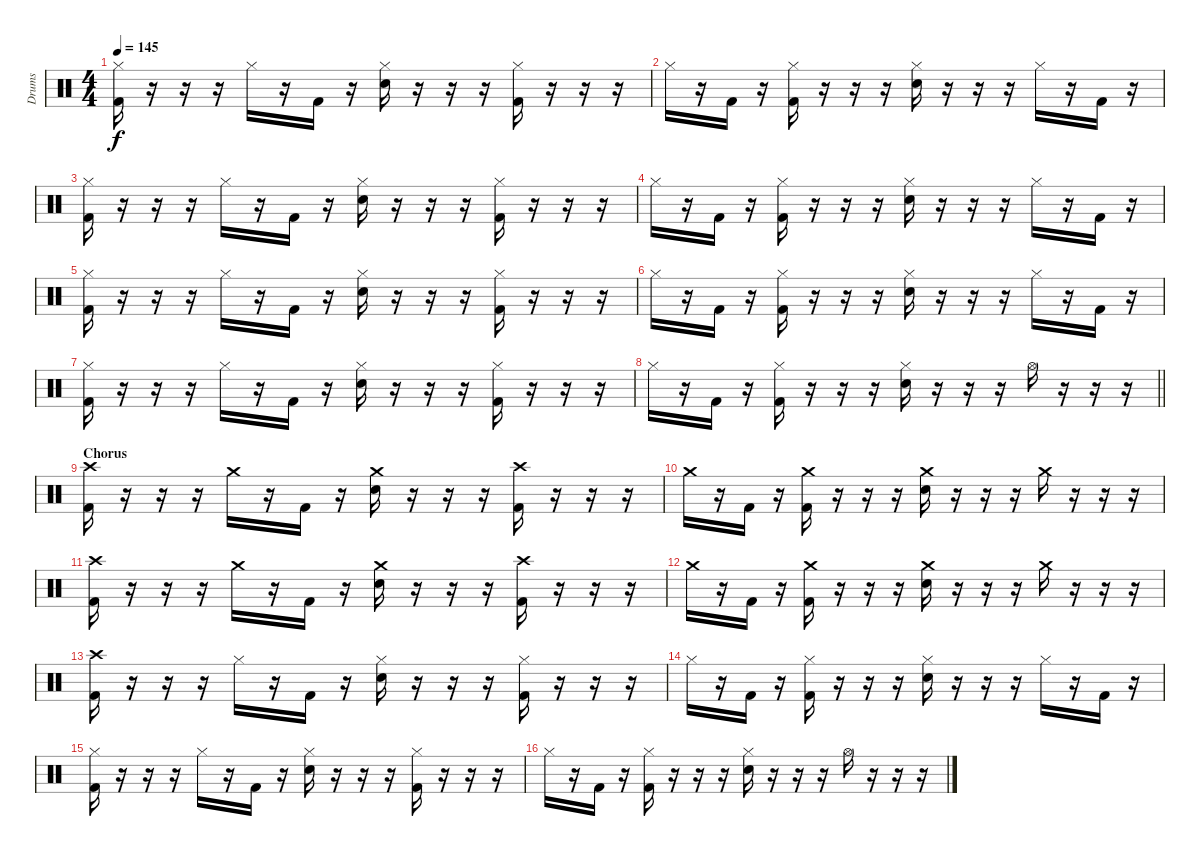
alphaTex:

\track ("Drums" "Drums") {instrument percussion}
\staff {score}
\articulation defaults
\ts (4 4)
\tempo 145
\clef neutral
\ks c
("Hi-Hat (closed)" "Kick (hit) 2").16{dy f} r.16 r.16 r.16 "Hi-Hat (closed)".16 r.16 "Kick (hit) 2".16 r.16 ("Hi-Hat (closed)" "Electric Snare (hit)").16 r.16 r.16 r.16 ("Hi-Hat (closed)" "Kick (hit) 2").16 r.16 r.16 r.16 |
"Hi-Hat (closed)".16 r.16 "Kick (hit) 2".16 r.16 ("Hi-Hat (closed)" "Kick (hit) 2").16 r.16 r.16 r.16 ("Hi-Hat (closed)" "Electric Snare (hit)").16 r.16 r.16 r.16 "Hi-Hat (closed)".16 r.16 "Kick (hit) 2".16 r.16 |
("Hi-Hat (closed)" "Kick (hit) 2").16 r.16 r.16 r.16 "Hi-Hat (closed)".16 r.16 "Kick (hit) 2".16 r.16 ("Hi-Hat (closed)" "Electric Snare (hit)").16 r.16 r.16 r.16 ("Hi-Hat (closed)" "Kick (hit) 2").16 r.16 r.16 r.16 |
"Hi-Hat (closed)".16 r.16 "Kick (hit) 2".16 r.16 ("Hi-Hat (closed)" "Kick (hit) 2").16 r.16 r.16 r.16 ("Hi-Hat (closed)" "Electric Snare (hit)").16 r.16 r.16 r.16 "Hi-Hat (closed)".16 r.16 "Kick (hit) 2".16 r.16 |
("Hi-Hat (closed)" "Kick (hit) 2").16 r.16 r.16 r.16 "Hi-Hat (closed)".16 r.16 "Kick (hit) 2".16 r.16 ("Hi-Hat (closed)" "Electric Snare (hit)").16 r.16 r.16 r.16 ("Hi-Hat (closed)" "Kick (hit) 2").16 r.16 r.16 r.16 |
"Hi-Hat (closed)".16 r.16 "Kick (hit) 2".16 r.16 ("Hi-Hat (closed)" "Kick (hit) 2").16 r.16 r.16 r.16 ("Hi-Hat (closed)" "Electric Snare (hit)").16 r.16 r.16 r.16 "Hi-Hat (closed)".16 r.16 "Kick (hit) 2".16 r.16 |
("Hi-Hat (closed)" "Kick (hit) 2").16 r.16 r.16 r.16 "Hi-Hat (closed)".16 r.16 "Kick (hit) 2".16 r.16 ("Hi-Hat (closed)" "Electric Snare (hit)").16 r.16 r.16 r.16 ("Hi-Hat (closed)" "Kick (hit) 2").16 r.16 r.16 r.16 |
\barLineRight lightlight "Hi-Hat (closed)".16
r.16 "Kick (hit) 2".16 r.16 ("Hi-Hat (closed)" "Kick (hit) 2").16 r.16 r.16 r.16 ("Hi-Hat (closed)" "Electric Snare (hit)").16 r.16 r.16 r.16 "Hi-Hat (open)".16 r.16 r.16 r.16 |
\section ("" "Chorus")
("Crash high (hit)" "Kick (hit) 2").16 r.16 r.16 r.16 "Crash medium (hit)".16 r.16 "Kick (hit) 2".16 r.16 ("Crash medium (hit)" "Electric Snare (hit)").16 r.16 r.16 r.16 ("Crash high (hit)" "Kick (hit) 2").16 r.16 r.16 r.16 |
"Crash medium (hit)".16 r.16 "Kick (hit) 2".16 r.16 ("Crash medium (hit)" "Kick (hit) 2").16 r.16 r.16 r.16 ("Crash medium (hit)" "Electric Snare (hit)").16 r.16 r.16 r.16 "Crash medium (hit)".16 r.16 r.16 r.16 |
("Crash high (hit)" "Kick (hit) 2").16 r.16 r.16 r.16 "Crash medium (hit)".16 r.16 "Kick (hit) 2".16 r.16 ("Crash medium (hit)" "Electric Snare (hit)").16 r.16 r.16 r.16 ("Crash high (hit)" "Kick (hit) 2").16 r.16 r.16 r.16 |
"Crash medium (hit)".16 r.16 "Kick (hit) 2".16 r.16 ("Crash medium (hit)" "Kick (hit) 2").16 r.16 r.16 r.16 ("Crash medium (hit)" "Electric Snare (hit)").16 r.16 r.16 r.16 "Crash medium (hit)".16 r.16 r.16 r.16 |
("Crash high (hit)" "Kick (hit) 2").16 r.16 r.16 r.16 "Hi-Hat (closed)".16 r.16 "Kick (hit) 2".16 r.16 ("Hi-Hat (closed)" "Electric Snare (hit)").16 r.16 r.16 r.16 ("Hi-Hat (closed)" "Kick (hit) 2").16 r.16 r.16 r.16 |
"Hi-Hat (closed)".16 r.16 "Kick (hit) 2".16 r.16 ("Hi-Hat (closed)" "Kick (hit) 2").16 r.16 r.16 r.16 ("Hi-Hat (closed)" "Electric Snare (hit)").16 r.16 r.16 r.16 "Hi-Hat (closed)".16 r.16 "Kick (hit) 2".16 r.16 |
("Hi-Hat (closed)" "Kick (hit) 2").16 r.16 r.16 r.16 "Hi-Hat (closed)".16 r.16 "Kick (hit) 2".16 r.16 ("Hi-Hat (closed)" "Electric Snare (hit)").16 r.16 r.16 r.16 ("Hi-Hat (closed)" "Kick (hit) 2").16 r.16 r.16 r.16 |
"Hi-Hat (closed)".16 r.16 "Kick (hit) 2".16 r.16 ("Hi-Hat (closed)" "Kick (hit) 2").16 r.16 r.16 r.16 ("Hi-Hat (closed)" "Electric Snare (hit)").16 r.16 r.16 r.16 "Hi-Hat (open)".16 r.16 r.16 r.16
